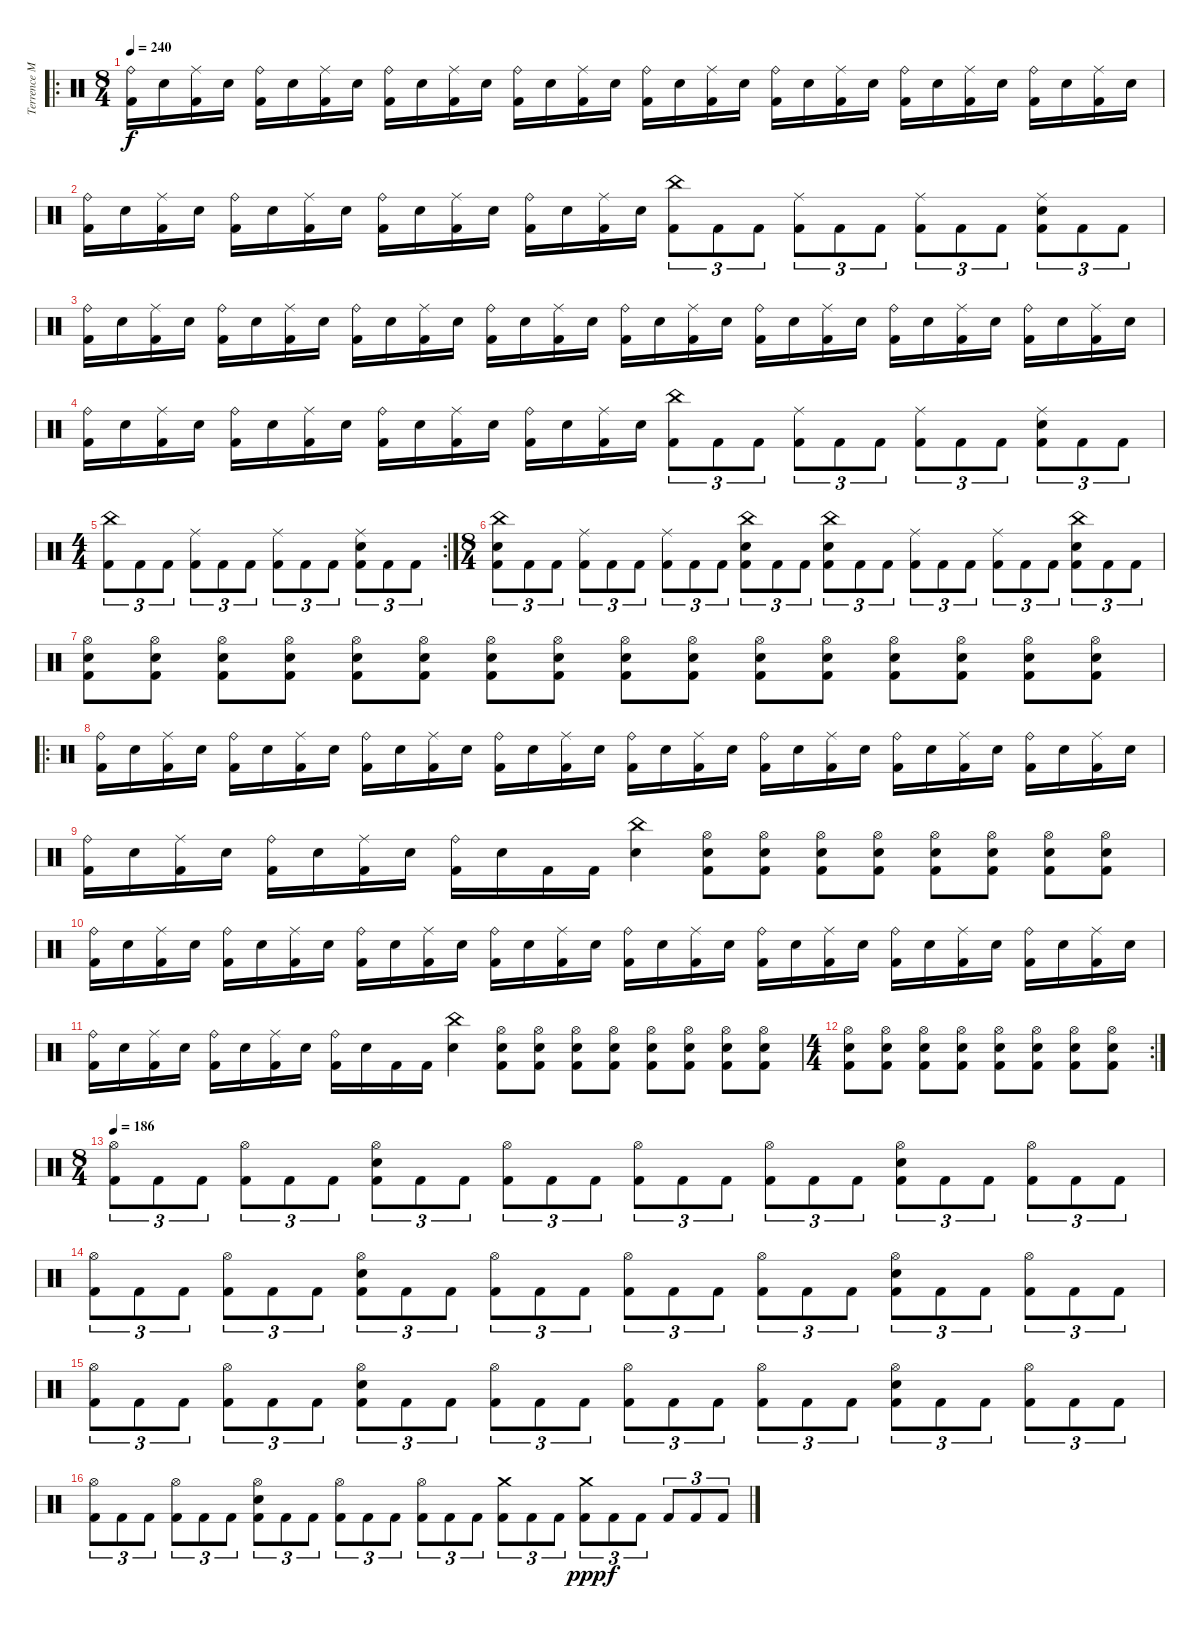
\track ("Terrence Manauis" "Terrence M") {instrument percussion}
\staff {score}
\articulation defaults
\ro
\ts (8 4)
\tempo 240
\clef neutral
\ks c
("Ride (bell)" "Kick (hit) 2").16{dy f} "Electric Snare (hit)".16 ("Ride (middle)" "Kick (hit) 2").16 "Electric Snare (hit)".16 ("Ride (bell)" "Kick (hit) 2").16 "Electric Snare (hit)".16 ("Ride (middle)" "Kick (hit) 2").16 "Electric Snare (hit)".16 ("Ride (bell)" "Kick (hit) 2").16 "Electric Snare (hit)".16 ("Ride (middle)" "Kick (hit) 2").16 "Electric Snare (hit)".16 ("Ride (bell)" "Kick (hit) 2").16 "Electric Snare (hit)".16 ("Ride (middle)" "Kick (hit) 2").16 "Electric Snare (hit)".16 ("Ride (bell)" "Kick (hit) 2").16 "Electric Snare (hit)".16 ("Ride (middle)" "Kick (hit) 2").16 "Electric Snare (hit)".16 ("Ride (bell)" "Kick (hit) 2").16 "Electric Snare (hit)".16 ("Ride (middle)" "Kick (hit) 2").16 "Electric Snare (hit)".16 ("Ride (bell)" "Kick (hit) 2").16 "Electric Snare (hit)".16 ("Ride (middle)" "Kick (hit) 2").16 "Electric Snare (hit)".16 ("Ride (bell)" "Kick (hit) 2").16 "Electric Snare (hit)".16 ("Ride (middle)" "Kick (hit) 2").16 "Electric Snare (hit)".16 |
("Ride (bell)" "Kick (hit) 2").16 "Electric Snare (hit)".16 ("Ride (middle)" "Kick (hit) 2").16 "Electric Snare (hit)".16 ("Ride (bell)" "Kick (hit) 2").16 "Electric Snare (hit)".16 ("Ride (middle)" "Kick (hit) 2").16 "Electric Snare (hit)".16 ("Ride (bell)" "Kick (hit) 2").16 "Electric Snare (hit)".16 ("Ride (middle)" "Kick (hit) 2").16 "Electric Snare (hit)".16 ("Ride (bell)" "Kick (hit) 2").16 "Electric Snare (hit)".16 ("Ride (middle)" "Kick (hit) 2").16 "Electric Snare (hit)".16 ("China (hit)" "Kick (hit) 2").8{tu (3 2)} "Kick (hit) 2".8{tu (3 2)} "Kick (hit) 2".8{tu (3 2)} ("Ride (middle)" "Kick (hit) 2").8{tu (3 2)} "Kick (hit) 2".8{tu (3 2)} "Kick (hit) 2".8{tu (3 2)} ("Ride (middle)" "Kick (hit) 2").8{tu (3 2)} "Kick (hit) 2".8{tu (3 2)} "Kick (hit) 2".8{tu (3 2)} ("Ride (middle)" "Electric Snare (hit)" "Kick (hit) 2").8{tu (3 2)} "Kick (hit) 2".8{tu (3 2)} "Kick (hit) 2".8{tu (3 2)} |
("Ride (bell)" "Kick (hit) 2").16 "Electric Snare (hit)".16 ("Ride (middle)" "Kick (hit) 2").16 "Electric Snare (hit)".16 ("Ride (bell)" "Kick (hit) 2").16 "Electric Snare (hit)".16 ("Ride (middle)" "Kick (hit) 2").16 "Electric Snare (hit)".16 ("Ride (bell)" "Kick (hit) 2").16 "Electric Snare (hit)".16 ("Ride (middle)" "Kick (hit) 2").16 "Electric Snare (hit)".16 ("Ride (bell)" "Kick (hit) 2").16 "Electric Snare (hit)".16 ("Ride (middle)" "Kick (hit) 2").16 "Electric Snare (hit)".16 ("Ride (bell)" "Kick (hit) 2").16 "Electric Snare (hit)".16 ("Ride (middle)" "Kick (hit) 2").16 "Electric Snare (hit)".16 ("Ride (bell)" "Kick (hit) 2").16 "Electric Snare (hit)".16 ("Ride (middle)" "Kick (hit) 2").16 "Electric Snare (hit)".16 ("Ride (bell)" "Kick (hit) 2").16 "Electric Snare (hit)".16 ("Ride (middle)" "Kick (hit) 2").16 "Electric Snare (hit)".16 ("Ride (bell)" "Kick (hit) 2").16 "Electric Snare (hit)".16 ("Ride (middle)" "Kick (hit) 2").16 "Electric Snare (hit)".16 |
("Ride (bell)" "Kick (hit) 2").16 "Electric Snare (hit)".16 ("Ride (middle)" "Kick (hit) 2").16 "Electric Snare (hit)".16 ("Ride (bell)" "Kick (hit) 2").16 "Electric Snare (hit)".16 ("Ride (middle)" "Kick (hit) 2").16 "Electric Snare (hit)".16 ("Ride (bell)" "Kick (hit) 2").16 "Electric Snare (hit)".16 ("Ride (middle)" "Kick (hit) 2").16 "Electric Snare (hit)".16 ("Ride (bell)" "Kick (hit) 2").16 "Electric Snare (hit)".16 ("Ride (middle)" "Kick (hit) 2").16 "Electric Snare (hit)".16 ("China (hit)" "Kick (hit) 2").8{tu (3 2)} "Kick (hit) 2".8{tu (3 2)} "Kick (hit) 2".8{tu (3 2)} ("Ride (middle)" "Kick (hit) 2").8{tu (3 2)} "Kick (hit) 2".8{tu (3 2)} "Kick (hit) 2".8{tu (3 2)} ("Ride (middle)" "Kick (hit) 2").8{tu (3 2)} "Kick (hit) 2".8{tu (3 2)} "Kick (hit) 2".8{tu (3 2)} ("Ride (middle)" "Electric Snare (hit)" "Kick (hit) 2").8{tu (3 2)} "Kick (hit) 2".8{tu (3 2)} "Kick (hit) 2".8{tu (3 2)} |
\rc 2
\ts (4 4)
("China (hit)" "Kick (hit) 2").8{tu (3 2)} "Kick (hit) 2".8{tu (3 2)} "Kick (hit) 2".8{tu (3 2)} ("Ride (middle)" "Kick (hit) 2").8{tu (3 2)} "Kick (hit) 2".8{tu (3 2)} "Kick (hit) 2".8{tu (3 2)} ("Ride (middle)" "Kick (hit) 2").8{tu (3 2)} "Kick (hit) 2".8{tu (3 2)} "Kick (hit) 2".8{tu (3 2)} ("Ride (middle)" "Electric Snare (hit)" "Kick (hit) 2").8{tu (3 2)} "Kick (hit) 2".8{tu (3 2)} "Kick (hit) 2".8{tu (3 2)} |
\ts (8 4)
("China (hit)" "Electric Snare (hit)" "Kick (hit) 2").8{tu (3 2)} "Kick (hit) 2".8{tu (3 2)} "Kick (hit) 2".8{tu (3 2)} ("Ride (middle)" "Kick (hit) 2").8{tu (3 2)} "Kick (hit) 2".8{tu (3 2)} "Kick (hit) 2".8{tu (3 2)} ("Ride (middle)" "Kick (hit) 2").8{tu (3 2)} "Kick (hit) 2".8{tu (3 2)} "Kick (hit) 2".8{tu (3 2)} ("China (hit)" "Electric Snare (hit)" "Kick (hit) 2").8{tu (3 2)} "Kick (hit) 2".8{tu (3 2)} "Kick (hit) 2".8{tu (3 2)} ("China (hit)" "Electric Snare (hit)" "Kick (hit) 2").8{tu (3 2)} "Kick (hit) 2".8{tu (3 2)} "Kick (hit) 2".8{tu (3 2)} ("Ride (middle)" "Kick (hit) 2").8{tu (3 2)} "Kick (hit) 2".8{tu (3 2)} "Kick (hit) 2".8{tu (3 2)} ("Ride (middle)" "Kick (hit) 2").8{tu (3 2)} "Kick (hit) 2".8{tu (3 2)} "Kick (hit) 2".8{tu (3 2)} ("China (hit)" "Electric Snare (hit)" "Kick (hit) 2").8{tu (3 2)} "Kick (hit) 2".8{tu (3 2)} "Kick (hit) 2".8{tu (3 2)} |
("Hi-Hat (open)" "Electric Snare (hit)" "Kick (hit) 2").8 ("Hi-Hat (open)" "Electric Snare (hit)" "Kick (hit) 2").8 ("Hi-Hat (open)" "Electric Snare (hit)" "Kick (hit) 2").8 ("Hi-Hat (open)" "Electric Snare (hit)" "Kick (hit) 2").8 ("Hi-Hat (open)" "Electric Snare (hit)" "Kick (hit) 2").8 ("Hi-Hat (open)" "Electric Snare (hit)" "Kick (hit) 2").8 ("Hi-Hat (open)" "Electric Snare (hit)" "Kick (hit) 2").8 ("Hi-Hat (open)" "Electric Snare (hit)" "Kick (hit) 2").8 ("Hi-Hat (open)" "Electric Snare (hit)" "Kick (hit) 2").8 ("Hi-Hat (open)" "Electric Snare (hit)" "Kick (hit) 2").8 ("Hi-Hat (open)" "Electric Snare (hit)" "Kick (hit) 2").8 ("Hi-Hat (open)" "Electric Snare (hit)" "Kick (hit) 2").8 ("Hi-Hat (open)" "Electric Snare (hit)" "Kick (hit) 2").8 ("Hi-Hat (open)" "Electric Snare (hit)" "Kick (hit) 2").8 ("Hi-Hat (open)" "Electric Snare (hit)" "Kick (hit) 2").8 ("Hi-Hat (open)" "Electric Snare (hit)" "Kick (hit) 2").8 |
\ro
("Ride (bell)" "Kick (hit) 2").16 "Electric Snare (hit)".16 ("Ride (middle)" "Kick (hit) 2").16 "Electric Snare (hit)".16 ("Ride (bell)" "Kick (hit) 2").16 "Electric Snare (hit)".16 ("Ride (middle)" "Kick (hit) 2").16 "Electric Snare (hit)".16 ("Ride (bell)" "Kick (hit) 2").16 "Electric Snare (hit)".16 ("Ride (middle)" "Kick (hit) 2").16 "Electric Snare (hit)".16 ("Ride (bell)" "Kick (hit) 2").16 "Electric Snare (hit)".16 ("Ride (middle)" "Kick (hit) 2").16 "Electric Snare (hit)".16 ("Ride (bell)" "Kick (hit) 2").16 "Electric Snare (hit)".16 ("Ride (middle)" "Kick (hit) 2").16 "Electric Snare (hit)".16 ("Ride (bell)" "Kick (hit) 2").16 "Electric Snare (hit)".16 ("Ride (middle)" "Kick (hit) 2").16 "Electric Snare (hit)".16 ("Ride (bell)" "Kick (hit) 2").16 "Electric Snare (hit)".16 ("Ride (middle)" "Kick (hit) 2").16 "Electric Snare (hit)".16 ("Ride (bell)" "Kick (hit) 2").16 "Electric Snare (hit)".16 ("Ride (middle)" "Kick (hit) 2").16 "Electric Snare (hit)".16 |
("Ride (bell)" "Kick (hit) 2").16 "Electric Snare (hit)".16 ("Ride (middle)" "Kick (hit) 2").16 "Electric Snare (hit)".16 ("Ride (bell)" "Kick (hit) 2").16 "Electric Snare (hit)".16 ("Ride (middle)" "Kick (hit) 2").16 "Electric Snare (hit)".16 ("Ride (bell)" "Kick (hit) 2").16 "Electric Snare (hit)".16 "Kick (hit) 2".16 "Kick (hit) 2".16 ("China (hit)" "Electric Snare (hit)").4 ("Hi-Hat (open)" "Electric Snare (hit)" "Kick (hit) 2").8 ("Hi-Hat (open)" "Electric Snare (hit)" "Kick (hit) 2").8 ("Hi-Hat (open)" "Electric Snare (hit)" "Kick (hit) 2").8 ("Hi-Hat (open)" "Electric Snare (hit)" "Kick (hit) 2").8 ("Hi-Hat (open)" "Electric Snare (hit)" "Kick (hit) 2").8 ("Hi-Hat (open)" "Electric Snare (hit)" "Kick (hit) 2").8 ("Hi-Hat (open)" "Electric Snare (hit)" "Kick (hit) 2").8 ("Hi-Hat (open)" "Electric Snare (hit)" "Kick (hit) 2").8 |
("Ride (bell)" "Kick (hit) 2").16 "Electric Snare (hit)".16 ("Ride (middle)" "Kick (hit) 2").16 "Electric Snare (hit)".16 ("Ride (bell)" "Kick (hit) 2").16 "Electric Snare (hit)".16 ("Ride (middle)" "Kick (hit) 2").16 "Electric Snare (hit)".16 ("Ride (bell)" "Kick (hit) 2").16 "Electric Snare (hit)".16 ("Ride (middle)" "Kick (hit) 2").16 "Electric Snare (hit)".16 ("Ride (bell)" "Kick (hit) 2").16 "Electric Snare (hit)".16 ("Ride (middle)" "Kick (hit) 2").16 "Electric Snare (hit)".16 ("Ride (bell)" "Kick (hit) 2").16 "Electric Snare (hit)".16 ("Ride (middle)" "Kick (hit) 2").16 "Electric Snare (hit)".16 ("Ride (bell)" "Kick (hit) 2").16 "Electric Snare (hit)".16 ("Ride (middle)" "Kick (hit) 2").16 "Electric Snare (hit)".16 ("Ride (bell)" "Kick (hit) 2").16 "Electric Snare (hit)".16 ("Ride (middle)" "Kick (hit) 2").16 "Electric Snare (hit)".16 ("Ride (bell)" "Kick (hit) 2").16 "Electric Snare (hit)".16 ("Ride (middle)" "Kick (hit) 2").16 "Electric Snare (hit)".16 |
("Ride (bell)" "Kick (hit) 2").16 "Electric Snare (hit)".16 ("Ride (middle)" "Kick (hit) 2").16 "Electric Snare (hit)".16 ("Ride (bell)" "Kick (hit) 2").16 "Electric Snare (hit)".16 ("Ride (middle)" "Kick (hit) 2").16 "Electric Snare (hit)".16 ("Ride (bell)" "Kick (hit) 2").16 "Electric Snare (hit)".16 "Kick (hit) 2".16 "Kick (hit) 2".16 ("China (hit)" "Electric Snare (hit)").4 ("Hi-Hat (open)" "Electric Snare (hit)" "Kick (hit) 2").8 ("Hi-Hat (open)" "Electric Snare (hit)" "Kick (hit) 2").8 ("Hi-Hat (open)" "Electric Snare (hit)" "Kick (hit) 2").8 ("Hi-Hat (open)" "Electric Snare (hit)" "Kick (hit) 2").8 ("Hi-Hat (open)" "Electric Snare (hit)" "Kick (hit) 2").8 ("Hi-Hat (open)" "Electric Snare (hit)" "Kick (hit) 2").8 ("Hi-Hat (open)" "Electric Snare (hit)" "Kick (hit) 2").8 ("Hi-Hat (open)" "Electric Snare (hit)" "Kick (hit) 2").8 |
\rc 2
\ts (4 4)
("Hi-Hat (open)" "Electric Snare (hit)" "Kick (hit) 2").8 ("Hi-Hat (open)" "Electric Snare (hit)" "Kick (hit) 2").8 ("Hi-Hat (open)" "Electric Snare (hit)" "Kick (hit) 2").8 ("Hi-Hat (open)" "Electric Snare (hit)" "Kick (hit) 2").8 ("Hi-Hat (open)" "Electric Snare (hit)" "Kick (hit) 2").8 ("Hi-Hat (open)" "Electric Snare (hit)" "Kick (hit) 2").8 ("Hi-Hat (open)" "Electric Snare (hit)" "Kick (hit) 2").8 ("Hi-Hat (open)" "Electric Snare (hit)" "Kick (hit) 2").8 |
\ts (8 4)
\tempo 186
("Hi-Hat (open)" "Kick (hit) 2").8{tu (3 2)} "Kick (hit) 2".8{tu (3 2)} "Kick (hit) 2".8{tu (3 2)} ("Hi-Hat (open)" "Kick (hit) 2").8{tu (3 2)} "Kick (hit) 2".8{tu (3 2)} "Kick (hit) 2".8{tu (3 2)} ("Hi-Hat (open)" "Electric Snare (hit)" "Kick (hit) 2").8{tu (3 2)} "Kick (hit) 2".8{tu (3 2)} "Kick (hit) 2".8{tu (3 2)} ("Hi-Hat (open)" "Kick (hit) 2").8{tu (3 2)} "Kick (hit) 2".8{tu (3 2)} "Kick (hit) 2".8{tu (3 2)} ("Hi-Hat (open)" "Kick (hit) 2").8{tu (3 2)} "Kick (hit) 2".8{tu (3 2)} "Kick (hit) 2".8{tu (3 2)} ("Hi-Hat (open)" "Kick (hit) 2").8{tu (3 2)} "Kick (hit) 2".8{tu (3 2)} "Kick (hit) 2".8{tu (3 2)} ("Hi-Hat (open)" "Electric Snare (hit)" "Kick (hit) 2").8{tu (3 2)} "Kick (hit) 2".8{tu (3 2)} "Kick (hit) 2".8{tu (3 2)} ("Hi-Hat (open)" "Kick (hit) 2").8{tu (3 2)} "Kick (hit) 2".8{tu (3 2)} "Kick (hit) 2".8{tu (3 2)} |
("Hi-Hat (open)" "Kick (hit) 2").8{tu (3 2)} "Kick (hit) 2".8{tu (3 2)} "Kick (hit) 2".8{tu (3 2)} ("Hi-Hat (open)" "Kick (hit) 2").8{tu (3 2)} "Kick (hit) 2".8{tu (3 2)} "Kick (hit) 2".8{tu (3 2)} ("Hi-Hat (open)" "Electric Snare (hit)" "Kick (hit) 2").8{tu (3 2)} "Kick (hit) 2".8{tu (3 2)} "Kick (hit) 2".8{tu (3 2)} ("Hi-Hat (open)" "Kick (hit) 2").8{tu (3 2)} "Kick (hit) 2".8{tu (3 2)} "Kick (hit) 2".8{tu (3 2)} ("Hi-Hat (open)" "Kick (hit) 2").8{tu (3 2)} "Kick (hit) 2".8{tu (3 2)} "Kick (hit) 2".8{tu (3 2)} ("Hi-Hat (open)" "Kick (hit) 2").8{tu (3 2)} "Kick (hit) 2".8{tu (3 2)} "Kick (hit) 2".8{tu (3 2)} ("Hi-Hat (open)" "Electric Snare (hit)" "Kick (hit) 2").8{tu (3 2)} "Kick (hit) 2".8{tu (3 2)} "Kick (hit) 2".8{tu (3 2)} ("Hi-Hat (open)" "Kick (hit) 2").8{tu (3 2)} "Kick (hit) 2".8{tu (3 2)} "Kick (hit) 2".8{tu (3 2)} |
("Hi-Hat (open)" "Kick (hit) 2").8{tu (3 2)} "Kick (hit) 2".8{tu (3 2)} "Kick (hit) 2".8{tu (3 2)} ("Hi-Hat (open)" "Kick (hit) 2").8{tu (3 2)} "Kick (hit) 2".8{tu (3 2)} "Kick (hit) 2".8{tu (3 2)} ("Hi-Hat (open)" "Electric Snare (hit)" "Kick (hit) 2").8{tu (3 2)} "Kick (hit) 2".8{tu (3 2)} "Kick (hit) 2".8{tu (3 2)} ("Hi-Hat (open)" "Kick (hit) 2").8{tu (3 2)} "Kick (hit) 2".8{tu (3 2)} "Kick (hit) 2".8{tu (3 2)} ("Hi-Hat (open)" "Kick (hit) 2").8{tu (3 2)} "Kick (hit) 2".8{tu (3 2)} "Kick (hit) 2".8{tu (3 2)} ("Hi-Hat (open)" "Kick (hit) 2").8{tu (3 2)} "Kick (hit) 2".8{tu (3 2)} "Kick (hit) 2".8{tu (3 2)} ("Hi-Hat (open)" "Electric Snare (hit)" "Kick (hit) 2").8{tu (3 2)} "Kick (hit) 2".8{tu (3 2)} "Kick (hit) 2".8{tu (3 2)} ("Hi-Hat (open)" "Kick (hit) 2").8{tu (3 2)} "Kick (hit) 2".8{tu (3 2)} "Kick (hit) 2".8{tu (3 2)} |
("Hi-Hat (open)" "Kick (hit) 2").8{tu (3 2)} "Kick (hit) 2".8{tu (3 2)} "Kick (hit) 2".8{tu (3 2)} ("Hi-Hat (open)" "Kick (hit) 2").8{tu (3 2)} "Kick (hit) 2".8{tu (3 2)} "Kick (hit) 2".8{tu (3 2)} ("Hi-Hat (open)" "Electric Snare (hit)" "Kick (hit) 2").8{tu (3 2)} "Kick (hit) 2".8{tu (3 2)} "Kick (hit) 2".8{tu (3 2)} ("Hi-Hat (open)" "Kick (hit) 2").8{tu (3 2)} "Kick (hit) 2".8{tu (3 2)} "Kick (hit) 2".8{tu (3 2)} ("Hi-Hat (open)" "Kick (hit) 2").8{tu (3 2)} "Kick (hit) 2".8{tu (3 2)} "Kick (hit) 2".8{tu (3 2)} ("Crash medium (hit)" "Kick (hit) 2").8{tu (3 2)} "Kick (hit) 2".8{tu (3 2)} "Kick (hit) 2".8{tu (3 2)} ("Crash medium (hit)" "Kick (hit) 2").8{tu (3 2) dy ppp} "Kick (hit) 2".8{tu (3 2) dy f} "Kick (hit) 2".8{tu (3 2)} "Kick (hit) 2".8{tu (3 2)} "Kick (hit) 2".8{tu (3 2)} "Kick (hit) 2".8{tu (3 2)}
